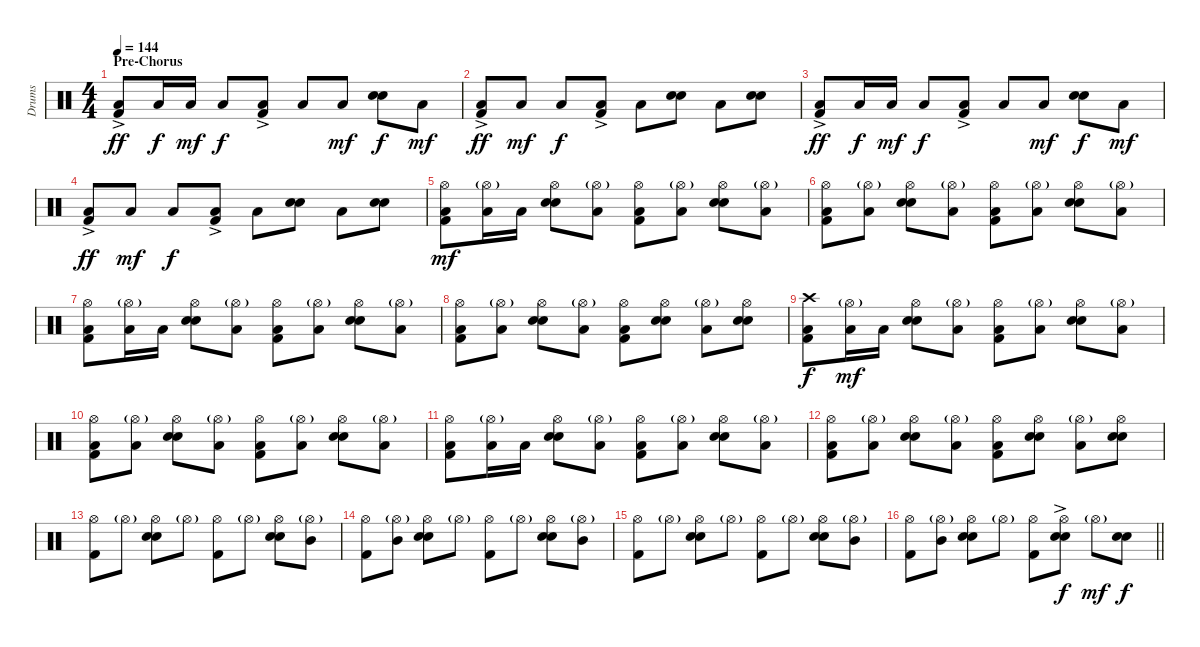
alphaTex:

\track ("Drums" "Drums") {instrument percussion}
\staff {score}
\articulation defaults
\ts (4 4)
\section ("" "Pre-Chorus")
\tempo 144
\clef neutral
\ks c
("Low Tom (hit)"{ac} "Kick (hit) 2").8{dy ff} "Low Tom (hit)".16{dy f} "Low Tom (hit)".16{dy mf} "Low Tom (hit)".8{dy f} ("Low Tom (hit)"{ac} "Kick (hit) 2").8 "Low Tom (hit)".8 "Low Tom (hit)".8{dy mf} ("Electric Snare (hit)" "Snare (hit) 2").8{dy f} "Low Tom (hit)".8{dy mf} |
("Low Tom (hit)"{ac} "Kick (hit) 2").8{dy ff} "Low Tom (hit)".8{dy mf} "Low Tom (hit)".8{dy f} ("Low Tom (hit)"{ac} "Kick (hit) 2").8 "Low Tom (hit)".8 ("Electric Snare (hit)" "Snare (hit) 2").8 "Low Tom (hit)".8 ("Electric Snare (hit)" "Snare (hit) 2").8 |
("Low Tom (hit)"{ac} "Kick (hit) 2").8{dy ff} "Low Tom (hit)".16{dy f} "Low Tom (hit)".16{dy mf} "Low Tom (hit)".8{dy f} ("Low Tom (hit)"{ac} "Kick (hit) 2").8 "Low Tom (hit)".8 "Low Tom (hit)".8{dy mf} ("Electric Snare (hit)" "Snare (hit) 2").8{dy f} "Low Tom (hit)".8{dy mf} |
("Low Tom (hit)"{ac} "Kick (hit) 2").8{dy ff} "Low Tom (hit)".8{dy mf} "Low Tom (hit)".8{dy f} ("Low Tom (hit)"{ac} "Kick (hit) 2").8 "Low Tom (hit)".8 ("Electric Snare (hit)" "Snare (hit) 2").8 "Low Tom (hit)".8 ("Electric Snare (hit)" "Snare (hit) 2").8 |
("Hi-Hat (open)" "Low Tom (hit)" "Kick (hit) 2").8{dy mf} ("Hi-Hat (open)"{g} "Low Tom (hit)").16 "Low Tom (hit)".16 ("Hi-Hat (open)" "Electric Snare (hit)" "Snare (hit) 2").8 ("Hi-Hat (open)"{g} "Low Tom (hit)").8 ("Hi-Hat (open)" "Low Tom (hit)" "Kick (hit) 2").8 ("Hi-Hat (open)"{g} "Low Tom (hit)").8 ("Hi-Hat (open)" "Electric Snare (hit)" "Snare (hit) 2").8 ("Hi-Hat (open)"{g} "Low Tom (hit)").8 |
("Hi-Hat (open)" "Low Tom (hit)" "Kick (hit) 2").8 ("Hi-Hat (open)"{g} "Low Tom (hit)").8 ("Hi-Hat (open)" "Electric Snare (hit)" "Snare (hit) 2").8 ("Hi-Hat (open)"{g} "Low Tom (hit)").8 ("Hi-Hat (open)" "Low Tom (hit)" "Kick (hit) 2").8 ("Hi-Hat (open)"{g} "Low Tom (hit)").8 ("Hi-Hat (open)" "Electric Snare (hit)" "Snare (hit) 2").8 ("Hi-Hat (open)"{g} "Low Tom (hit)").8 |
("Hi-Hat (open)" "Low Tom (hit)" "Kick (hit) 2").8 ("Hi-Hat (open)"{g} "Low Tom (hit)").16 "Low Tom (hit)".16 ("Hi-Hat (open)" "Electric Snare (hit)" "Snare (hit) 2").8 ("Hi-Hat (open)"{g} "Low Tom (hit)").8 ("Hi-Hat (open)" "Low Tom (hit)" "Kick (hit) 2").8 ("Hi-Hat (open)"{g} "Low Tom (hit)").8 ("Hi-Hat (open)" "Electric Snare (hit)" "Snare (hit) 2").8 ("Hi-Hat (open)"{g} "Low Tom (hit)").8 |
("Hi-Hat (open)" "Low Tom (hit)" "Kick (hit) 2").8 ("Hi-Hat (open)"{g} "Low Tom (hit)").8 ("Hi-Hat (open)" "Electric Snare (hit)" "Snare (hit) 2").8 ("Hi-Hat (open)"{g} "Low Tom (hit)").8 ("Hi-Hat (open)" "Low Tom (hit)" "Kick (hit) 2").8 ("Hi-Hat (open)" "Electric Snare (hit)" "Snare (hit) 2").8 ("Hi-Hat (open)"{g} "Low Tom (hit)").8 ("Hi-Hat (open)" "Electric Snare (hit)" "Snare (hit) 2").8 |
("Crash high (hit)" "Low Tom (hit)" "Kick (hit) 2").8{dy f} ("Hi-Hat (open)"{g} "Low Tom (hit)").16{dy mf} "Low Tom (hit)".16 ("Hi-Hat (open)" "Electric Snare (hit)" "Snare (hit) 2").8 ("Hi-Hat (open)"{g} "Low Tom (hit)").8 ("Hi-Hat (open)" "Low Tom (hit)" "Kick (hit) 2").8 ("Hi-Hat (open)"{g} "Low Tom (hit)").8 ("Hi-Hat (open)" "Electric Snare (hit)" "Snare (hit) 2").8 ("Hi-Hat (open)"{g} "Low Tom (hit)").8 |
("Hi-Hat (open)" "Low Tom (hit)" "Kick (hit) 2").8 ("Hi-Hat (open)"{g} "Low Tom (hit)").8 ("Hi-Hat (open)" "Electric Snare (hit)" "Snare (hit) 2").8 ("Hi-Hat (open)"{g} "Low Tom (hit)").8 ("Hi-Hat (open)" "Low Tom (hit)" "Kick (hit) 2").8 ("Hi-Hat (open)"{g} "Low Tom (hit)").8 ("Hi-Hat (open)" "Electric Snare (hit)" "Snare (hit) 2").8 ("Hi-Hat (open)"{g} "Low Tom (hit)").8 |
("Hi-Hat (open)" "Low Tom (hit)" "Kick (hit) 2").8 ("Hi-Hat (open)"{g} "Low Tom (hit)").16 "Low Tom (hit)".16 ("Hi-Hat (open)" "Electric Snare (hit)" "Snare (hit) 2").8 ("Hi-Hat (open)"{g} "Low Tom (hit)").8 ("Hi-Hat (open)" "Low Tom (hit)" "Kick (hit) 2").8 ("Hi-Hat (open)"{g} "Low Tom (hit)").8 ("Hi-Hat (open)" "Electric Snare (hit)" "Snare (hit) 2").8 ("Hi-Hat (open)"{g} "Low Tom (hit)").8 |
("Hi-Hat (open)" "Low Tom (hit)" "Kick (hit) 2").8 ("Hi-Hat (open)"{g} "Low Tom (hit)").8 ("Hi-Hat (open)" "Electric Snare (hit)" "Snare (hit) 2").8 ("Hi-Hat (open)"{g} "Low Tom (hit)").8 ("Hi-Hat (open)" "Low Tom (hit)" "Kick (hit) 2").8 ("Hi-Hat (open)" "Electric Snare (hit)" "Snare (hit) 2").8 ("Hi-Hat (open)"{g} "Low Tom (hit)").8 ("Hi-Hat (open)" "Electric Snare (hit)" "Snare (hit) 2").8 |
("Hi-Hat (open)" "Kick (hit) 2").8 "Hi-Hat (open)"{g}.8 ("Hi-Hat (open)" "Electric Snare (hit)" "Snare (hit) 2").8 "Hi-Hat (open)"{g}.8 ("Hi-Hat (open)" "Kick (hit) 2").8 "Hi-Hat (open)"{g}.8 ("Hi-Hat (open)" "Electric Snare (hit)" "Snare (hit) 2").8 ("Hi-Hat (open)"{g} "Mid Tom (hit)").8 |
("Hi-Hat (open)" "Kick (hit) 2").8 ("Hi-Hat (open)"{g} "Mid Tom (hit)").8 ("Hi-Hat (open)" "Electric Snare (hit)" "Snare (hit) 2").8 "Hi-Hat (open)"{g}.8 ("Hi-Hat (open)" "Kick (hit) 2").8 "Hi-Hat (open)"{g}.8 ("Hi-Hat (open)" "Electric Snare (hit)" "Snare (hit) 2").8 ("Hi-Hat (open)"{g} "Mid Tom (hit)").8 |
("Hi-Hat (open)" "Kick (hit) 2").8 "Hi-Hat (open)"{g}.8 ("Hi-Hat (open)" "Electric Snare (hit)" "Snare (hit) 2").8 "Hi-Hat (open)"{g}.8 ("Hi-Hat (open)" "Kick (hit) 2").8 "Hi-Hat (open)"{g}.8 ("Hi-Hat (open)" "Electric Snare (hit)" "Snare (hit) 2").8 ("Hi-Hat (open)"{g} "Mid Tom (hit)").8 |
\barLineRight lightlight
("Hi-Hat (open)" "Kick (hit) 2").8 ("Hi-Hat (open)"{g} "Mid Tom (hit)").8 ("Hi-Hat (open)" "Electric Snare (hit)" "Snare (hit) 2").8 "Hi-Hat (open)"{g}.8 ("Hi-Hat (open)" "Kick (hit) 2").8 ("Hi-Hat (open)"{ac} "Electric Snare (hit)" "Snare (hit) 2").8{dy f} "Hi-Hat (open)"{g}.8{dy mf} ("Electric Snare (hit)" "Snare (hit) 2").8{dy f}
